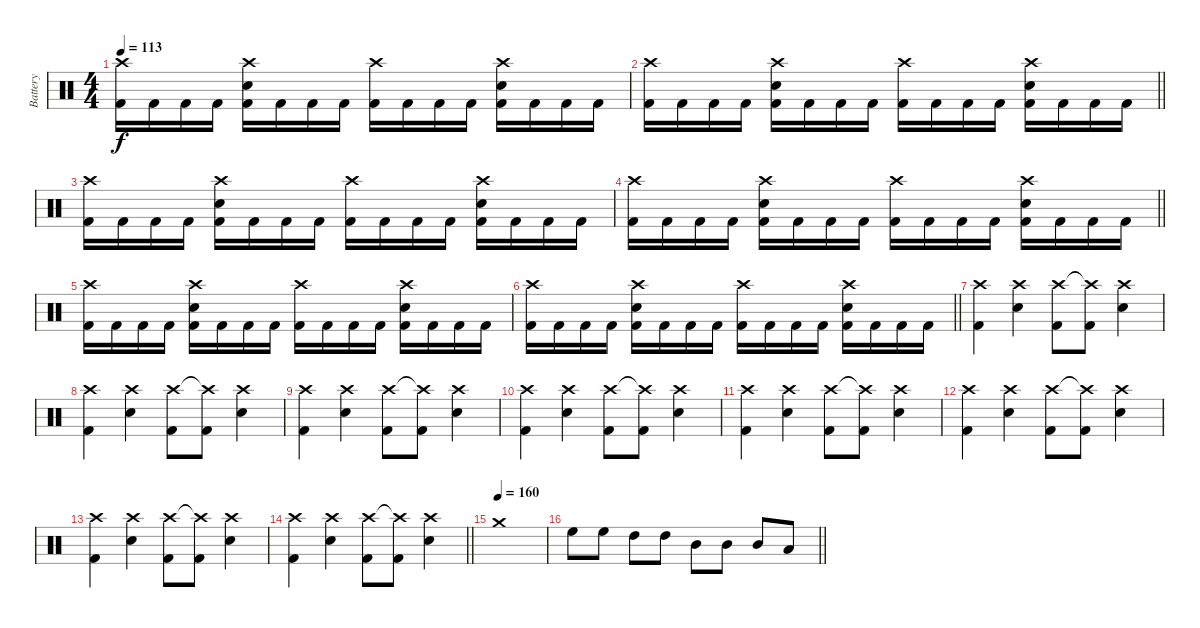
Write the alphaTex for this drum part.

\track ("Battery" "Battery") {instrument percussion}
\staff {score}
\articulation defaults
\ts (4 4)
\tempo 113
\clef neutral
\ks c
("Crash high (hit)" "Kick (hit) 2").16{dy f} "Kick (hit) 2".16 "Kick (hit) 2".16 "Kick (hit) 2".16 ("Crash high (hit)" "Snare (hit) 2" "Kick (hit) 2").16 "Kick (hit) 2".16 "Kick (hit) 2".16 "Kick (hit) 2".16 ("Crash high (hit)" "Kick (hit) 2").16 "Kick (hit) 2".16 "Kick (hit) 2".16 "Kick (hit) 2".16 ("Crash high (hit)" "Snare (hit) 2" "Kick (hit) 2").16 "Kick (hit) 2".16 "Kick (hit) 2".16 "Kick (hit) 2".16 |
\barLineRight lightlight
("Crash high (hit)" "Kick (hit) 2").16 "Kick (hit) 2".16 "Kick (hit) 2".16 "Kick (hit) 2".16 ("Crash high (hit)" "Snare (hit) 2" "Kick (hit) 2").16 "Kick (hit) 2".16 "Kick (hit) 2".16 "Kick (hit) 2".16 ("Crash high (hit)" "Kick (hit) 2").16 "Kick (hit) 2".16 "Kick (hit) 2".16 "Kick (hit) 2".16 ("Crash high (hit)" "Snare (hit) 2" "Kick (hit) 2").16 "Kick (hit) 2".16 "Kick (hit) 2".16 "Kick (hit) 2".16 |
("Crash high (hit)" "Kick (hit) 2").16 "Kick (hit) 2".16 "Kick (hit) 2".16 "Kick (hit) 2".16 ("Crash high (hit)" "Snare (hit) 2" "Kick (hit) 2").16 "Kick (hit) 2".16 "Kick (hit) 2".16 "Kick (hit) 2".16 ("Crash high (hit)" "Kick (hit) 2").16 "Kick (hit) 2".16 "Kick (hit) 2".16 "Kick (hit) 2".16 ("Crash high (hit)" "Snare (hit) 2" "Kick (hit) 2").16 "Kick (hit) 2".16 "Kick (hit) 2".16 "Kick (hit) 2".16 |
\barLineRight lightlight
("Crash high (hit)" "Kick (hit) 2").16 "Kick (hit) 2".16 "Kick (hit) 2".16 "Kick (hit) 2".16 ("Crash high (hit)" "Snare (hit) 2" "Kick (hit) 2").16 "Kick (hit) 2".16 "Kick (hit) 2".16 "Kick (hit) 2".16 ("Crash high (hit)" "Kick (hit) 2").16 "Kick (hit) 2".16 "Kick (hit) 2".16 "Kick (hit) 2".16 ("Crash high (hit)" "Snare (hit) 2" "Kick (hit) 2").16 "Kick (hit) 2".16 "Kick (hit) 2".16 "Kick (hit) 2".16 |
("Crash high (hit)" "Kick (hit) 2").16 "Kick (hit) 2".16 "Kick (hit) 2".16 "Kick (hit) 2".16 ("Crash high (hit)" "Snare (hit) 2" "Kick (hit) 2").16 "Kick (hit) 2".16 "Kick (hit) 2".16 "Kick (hit) 2".16 ("Crash high (hit)" "Kick (hit) 2").16 "Kick (hit) 2".16 "Kick (hit) 2".16 "Kick (hit) 2".16 ("Crash high (hit)" "Snare (hit) 2" "Kick (hit) 2").16 "Kick (hit) 2".16 "Kick (hit) 2".16 "Kick (hit) 2".16 |
\barLineRight lightlight
("Crash high (hit)" "Kick (hit) 2").16 "Kick (hit) 2".16 "Kick (hit) 2".16 "Kick (hit) 2".16 ("Crash high (hit)" "Snare (hit) 2" "Kick (hit) 2").16 "Kick (hit) 2".16 "Kick (hit) 2".16 "Kick (hit) 2".16 ("Crash high (hit)" "Kick (hit) 2").16 "Kick (hit) 2".16 "Kick (hit) 2".16 "Kick (hit) 2".16 ("Crash high (hit)" "Snare (hit) 2" "Kick (hit) 2").16 "Kick (hit) 2".16 "Kick (hit) 2".16 "Kick (hit) 2".16 |
("Crash high (hit)" "Kick (hit) 2").4 ("Crash high (hit)" "Snare (hit) 2").4 ("Crash high (hit)" "Kick (hit) 2").8 ("Crash high (hit)"{t} "Kick (hit) 2").8 ("Crash high (hit)" "Snare (hit) 2").4 |
("Crash high (hit)" "Kick (hit) 2").4 ("Crash high (hit)" "Snare (hit) 2").4 ("Crash high (hit)" "Kick (hit) 2").8 ("Crash high (hit)"{t} "Kick (hit) 2").8 ("Crash high (hit)" "Snare (hit) 2").4 |
("Crash high (hit)" "Kick (hit) 2").4 ("Crash high (hit)" "Snare (hit) 2").4 ("Crash high (hit)" "Kick (hit) 2").8 ("Crash high (hit)"{t} "Kick (hit) 2").8 ("Crash high (hit)" "Snare (hit) 2").4 |
("Crash high (hit)" "Kick (hit) 2").4 ("Crash high (hit)" "Snare (hit) 2").4 ("Crash high (hit)" "Kick (hit) 2").8 ("Crash high (hit)"{t} "Kick (hit) 2").8 ("Crash high (hit)" "Snare (hit) 2").4 |
("Crash high (hit)" "Kick (hit) 2").4 ("Crash high (hit)" "Snare (hit) 2").4 ("Crash high (hit)" "Kick (hit) 2").8 ("Crash high (hit)"{t} "Kick (hit) 2").8 ("Crash high (hit)" "Snare (hit) 2").4 |
("Crash high (hit)" "Kick (hit) 2").4 ("Crash high (hit)" "Snare (hit) 2").4 ("Crash high (hit)" "Kick (hit) 2").8 ("Crash high (hit)"{t} "Kick (hit) 2").8 ("Crash high (hit)" "Snare (hit) 2").4 |
("Crash high (hit)" "Kick (hit) 2").4 ("Crash high (hit)" "Snare (hit) 2").4 ("Crash high (hit)" "Kick (hit) 2").8 ("Crash high (hit)"{t} "Kick (hit) 2").8 ("Crash high (hit)" "Snare (hit) 2").4 |
\barLineRight lightlight
("Crash high (hit)" "Kick (hit) 2").4 ("Crash high (hit)" "Snare (hit) 2").4 ("Crash high (hit)" "Kick (hit) 2").8 ("Crash high (hit)"{t} "Kick (hit) 2").8 ("Crash high (hit)" "Snare (hit) 2").4 |
\tempo (160)
"Crash medium (hit)".1 |
\barLineRight lightlight "High Floor Tom (hit)".8 "High Floor Tom (hit)".8 "High Tom (hit)".8 "High Tom (hit)".8 "Mid Tom (hit)".8 "Mid Tom (hit)".8 "Mid Tom (hit)".8 "Low Tom (hit)".8
